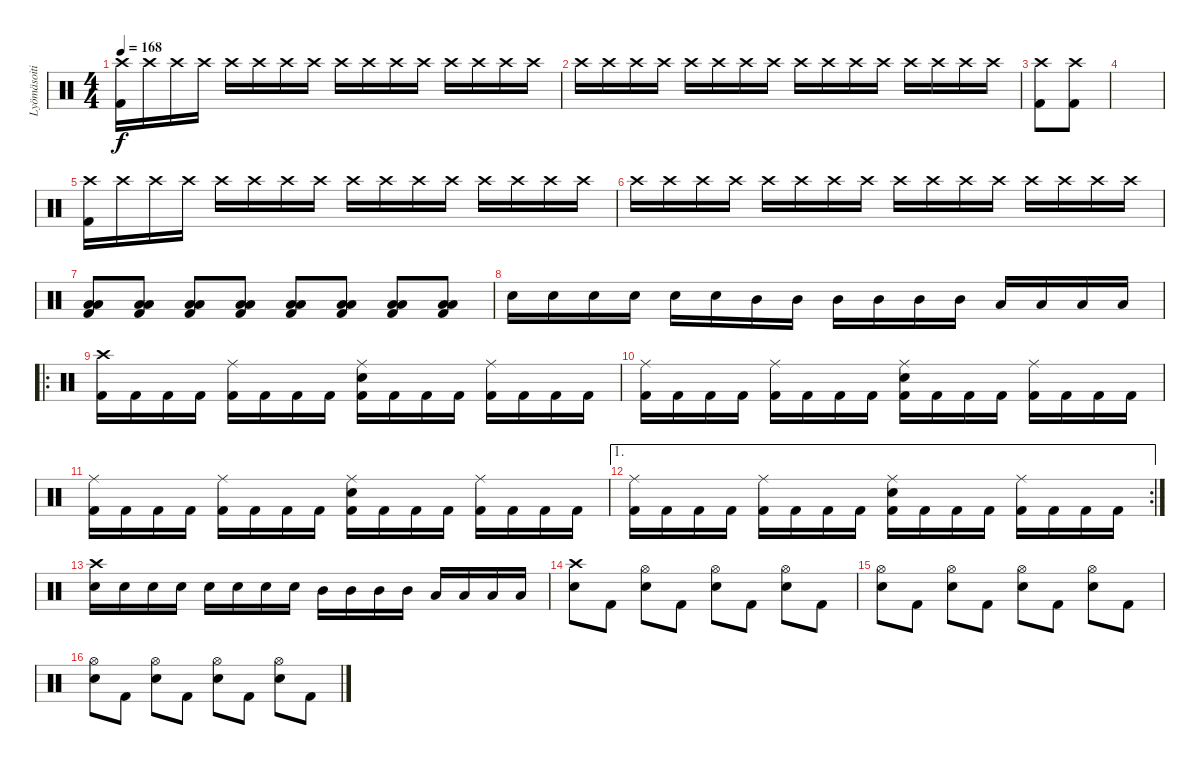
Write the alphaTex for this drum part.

\track ("Lyömäsoitin" "Lyömäsoiti") {instrument percussion}
\staff {score}
\articulation defaults
\ts (4 4)
\tempo 168
\clef neutral
\ks c
("Kick (hit) 2" "Crash high (hit)").16{dy f} "Crash high (hit)".16 "Crash high (hit)".16 "Crash high (hit)".16 "Crash high (hit)".16 "Crash high (hit)".16 "Crash high (hit)".16 "Crash high (hit)".16 "Crash high (hit)".16 "Crash high (hit)".16 "Crash high (hit)".16 "Crash high (hit)".16 "Crash high (hit)".16 "Crash high (hit)".16 "Crash high (hit)".16 "Crash high (hit)".16 |
"Crash high (hit)".16 "Crash high (hit)".16 "Crash high (hit)".16 "Crash high (hit)".16 "Crash high (hit)".16 "Crash high (hit)".16 "Crash high (hit)".16 "Crash high (hit)".16 "Crash high (hit)".16 "Crash high (hit)".16 "Crash high (hit)".16 "Crash high (hit)".16 "Crash high (hit)".16 "Crash high (hit)".16 "Crash high (hit)".16 "Crash high (hit)".16 |
("Kick (hit) 2" "Crash high (hit)").8 ("Kick (hit) 2" "Crash high (hit)").8 |
|
("Kick (hit) 2" "Crash high (hit)").16 "Crash high (hit)".16 "Crash high (hit)".16 "Crash high (hit)".16 "Crash high (hit)".16 "Crash high (hit)".16 "Crash high (hit)".16 "Crash high (hit)".16 "Crash high (hit)".16 "Crash high (hit)".16 "Crash high (hit)".16 "Crash high (hit)".16 "Crash high (hit)".16 "Crash high (hit)".16 "Crash high (hit)".16 "Crash high (hit)".16 |
"Crash high (hit)".16 "Crash high (hit)".16 "Crash high (hit)".16 "Crash high (hit)".16 "Crash high (hit)".16 "Crash high (hit)".16 "Crash high (hit)".16 "Crash high (hit)".16 "Crash high (hit)".16 "Crash high (hit)".16 "Crash high (hit)".16 "Crash high (hit)".16 "Crash high (hit)".16 "Crash high (hit)".16 "Crash high (hit)".16 "Crash high (hit)".16 |
("Kick (hit) 2" "Low Tom (hit)" "Low Floor Tom (hit)").8 ("Kick (hit) 2" "Low Tom (hit)" "Low Floor Tom (hit)").8 ("Kick (hit) 2" "Low Tom (hit)" "Low Floor Tom (hit)").8 ("Kick (hit) 2" "Low Tom (hit)" "Low Floor Tom (hit)").8 ("Kick (hit) 2" "Low Tom (hit)" "Low Floor Tom (hit)").8 ("Kick (hit) 2" "Low Tom (hit)" "Low Floor Tom (hit)").8 ("Kick (hit) 2" "Low Tom (hit)" "Low Floor Tom (hit)").8 ("Kick (hit) 2" "Low Tom (hit)" "Low Floor Tom (hit)").8 |
"Electric Snare (hit)".16 "Electric Snare (hit)".16 "Electric Snare (hit)".16 "Electric Snare (hit)".16 "Electric Snare (hit)".16 "Electric Snare (hit)".16 "Mid Tom (hit)".16 "Mid Tom (hit)".16 "Mid Tom (hit)".16 "Mid Tom (hit)".16 "Mid Tom (hit)".16 "Mid Tom (hit)".16 "Low Tom (hit)".16 "Low Tom (hit)".16 "Low Tom (hit)".16 "Low Tom (hit)".16 |
\ro
("Kick (hit) 2" "Crash high (hit)").16 "Kick (hit) 2".16 "Kick (hit) 2".16 "Kick (hit) 2".16 ("Kick (hit) 2" "Ride (middle)").16 "Kick (hit) 2".16 "Kick (hit) 2".16 "Kick (hit) 2".16 ("Kick (hit) 2" "Electric Snare (hit)" "Ride (middle)").16 "Kick (hit) 2".16 "Kick (hit) 2".16 "Kick (hit) 2".16 ("Kick (hit) 2" "Ride (middle)").16 "Kick (hit) 2".16 "Kick (hit) 2".16 "Kick (hit) 2".16 |
("Kick (hit) 2" "Ride (middle)").16 "Kick (hit) 2".16 "Kick (hit) 2".16 "Kick (hit) 2".16 ("Kick (hit) 2" "Ride (middle)").16 "Kick (hit) 2".16 "Kick (hit) 2".16 "Kick (hit) 2".16 ("Kick (hit) 2" "Electric Snare (hit)" "Ride (middle)").16 "Kick (hit) 2".16 "Kick (hit) 2".16 "Kick (hit) 2".16 ("Kick (hit) 2" "Ride (middle)").16 "Kick (hit) 2".16 "Kick (hit) 2".16 "Kick (hit) 2".16 |
("Kick (hit) 2" "Ride (middle)").16 "Kick (hit) 2".16 "Kick (hit) 2".16 "Kick (hit) 2".16 ("Kick (hit) 2" "Ride (middle)").16 "Kick (hit) 2".16 "Kick (hit) 2".16 "Kick (hit) 2".16 ("Kick (hit) 2" "Electric Snare (hit)" "Ride (middle)").16 "Kick (hit) 2".16 "Kick (hit) 2".16 "Kick (hit) 2".16 ("Kick (hit) 2" "Ride (middle)").16 "Kick (hit) 2".16 "Kick (hit) 2".16 "Kick (hit) 2".16 |
\ae 1
\rc 2
("Kick (hit) 2" "Ride (middle)").16 "Kick (hit) 2".16 "Kick (hit) 2".16 "Kick (hit) 2".16 ("Kick (hit) 2" "Ride (middle)").16 "Kick (hit) 2".16 "Kick (hit) 2".16 "Kick (hit) 2".16 ("Kick (hit) 2" "Electric Snare (hit)" "Ride (middle)").16 "Kick (hit) 2".16 "Kick (hit) 2".16 "Kick (hit) 2".16 ("Kick (hit) 2" "Ride (middle)").16 "Kick (hit) 2".16 "Kick (hit) 2".16 "Kick (hit) 2".16 |
("Electric Snare (hit)" "Crash high (hit)").16 "Electric Snare (hit)".16 "Electric Snare (hit)".16 "Electric Snare (hit)".16 "Electric Snare (hit)".16 "Electric Snare (hit)".16 "Electric Snare (hit)".16 "Electric Snare (hit)".16 "Mid Tom (hit)".16 "Mid Tom (hit)".16 "Mid Tom (hit)".16 "Mid Tom (hit)".16 "Low Tom (hit)".16 "Low Tom (hit)".16 "Low Tom (hit)".16 "Low Tom (hit)".16 |
("Electric Snare (hit)" "Crash high (hit)").8 "Kick (hit) 2".8 ("Electric Snare (hit)" "Hi-Hat (open)").8 "Kick (hit) 2".8 ("Electric Snare (hit)" "Hi-Hat (open)").8 "Kick (hit) 2".8 ("Electric Snare (hit)" "Hi-Hat (open)").8 "Kick (hit) 2".8 |
("Electric Snare (hit)" "Hi-Hat (open)").8 "Kick (hit) 2".8 ("Electric Snare (hit)" "Hi-Hat (open)").8 "Kick (hit) 2".8 ("Electric Snare (hit)" "Hi-Hat (open)").8 "Kick (hit) 2".8 ("Electric Snare (hit)" "Hi-Hat (open)").8 "Kick (hit) 2".8 |
("Electric Snare (hit)" "Hi-Hat (open)").8 "Kick (hit) 2".8 ("Electric Snare (hit)" "Hi-Hat (open)").8 "Kick (hit) 2".8 ("Electric Snare (hit)" "Hi-Hat (open)").8 "Kick (hit) 2".8 ("Electric Snare (hit)" "Hi-Hat (open)").8 "Kick (hit) 2".8
